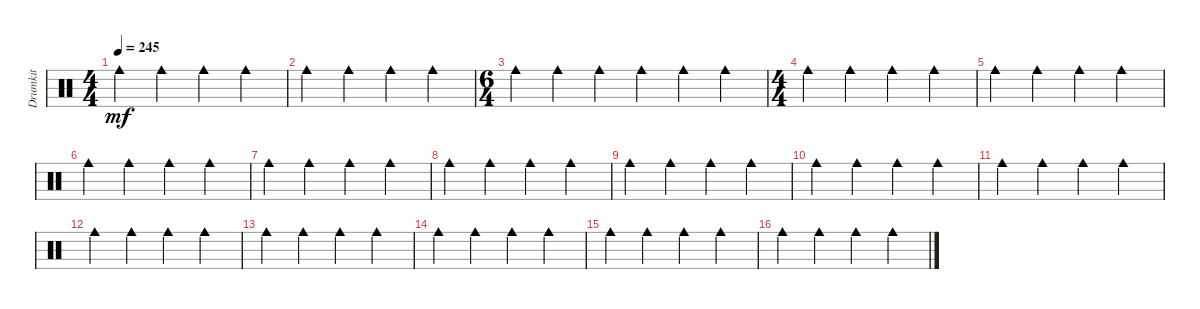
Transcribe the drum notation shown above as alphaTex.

\track ("Drumkit" "Drumkit") {instrument percussion}
\staff {score}
\articulation defaults
\ts (4 4)
\tempo 245
\clef neutral
\ks c "Cowbell medium (hit)".4{dy mf} "Cowbell medium (hit)".4 "Cowbell medium (hit)".4 "Cowbell medium (hit)".4
|
"Cowbell medium (hit)".4 "Cowbell medium (hit)".4 "Cowbell medium (hit)".4 "Cowbell medium (hit)".4 |
\ts (6 4)
"Cowbell medium (hit)".4 "Cowbell medium (hit)".4 "Cowbell medium (hit)".4 "Cowbell medium (hit)".4 "Cowbell medium (hit)".4 "Cowbell medium (hit)".4 |
\ts (4 4)
"Cowbell medium (hit)".4 "Cowbell medium (hit)".4 "Cowbell medium (hit)".4 "Cowbell medium (hit)".4 |
"Cowbell medium (hit)".4 "Cowbell medium (hit)".4 "Cowbell medium (hit)".4 "Cowbell medium (hit)".4 |
"Cowbell medium (hit)".4 "Cowbell medium (hit)".4 "Cowbell medium (hit)".4 "Cowbell medium (hit)".4 |
"Cowbell medium (hit)".4 "Cowbell medium (hit)".4 "Cowbell medium (hit)".4 "Cowbell medium (hit)".4 |
"Cowbell medium (hit)".4 "Cowbell medium (hit)".4 "Cowbell medium (hit)".4 "Cowbell medium (hit)".4 |
"Cowbell medium (hit)".4 "Cowbell medium (hit)".4 "Cowbell medium (hit)".4 "Cowbell medium (hit)".4 |
"Cowbell medium (hit)".4 "Cowbell medium (hit)".4 "Cowbell medium (hit)".4 "Cowbell medium (hit)".4 |
"Cowbell medium (hit)".4 "Cowbell medium (hit)".4 "Cowbell medium (hit)".4 "Cowbell medium (hit)".4 |
"Cowbell medium (hit)".4 "Cowbell medium (hit)".4 "Cowbell medium (hit)".4 "Cowbell medium (hit)".4 |
"Cowbell medium (hit)".4 "Cowbell medium (hit)".4 "Cowbell medium (hit)".4 "Cowbell medium (hit)".4 |
"Cowbell medium (hit)".4 "Cowbell medium (hit)".4 "Cowbell medium (hit)".4 "Cowbell medium (hit)".4 |
"Cowbell medium (hit)".4 "Cowbell medium (hit)".4 "Cowbell medium (hit)".4 "Cowbell medium (hit)".4 |
"Cowbell medium (hit)".4 "Cowbell medium (hit)".4 "Cowbell medium (hit)".4 "Cowbell medium (hit)".4
